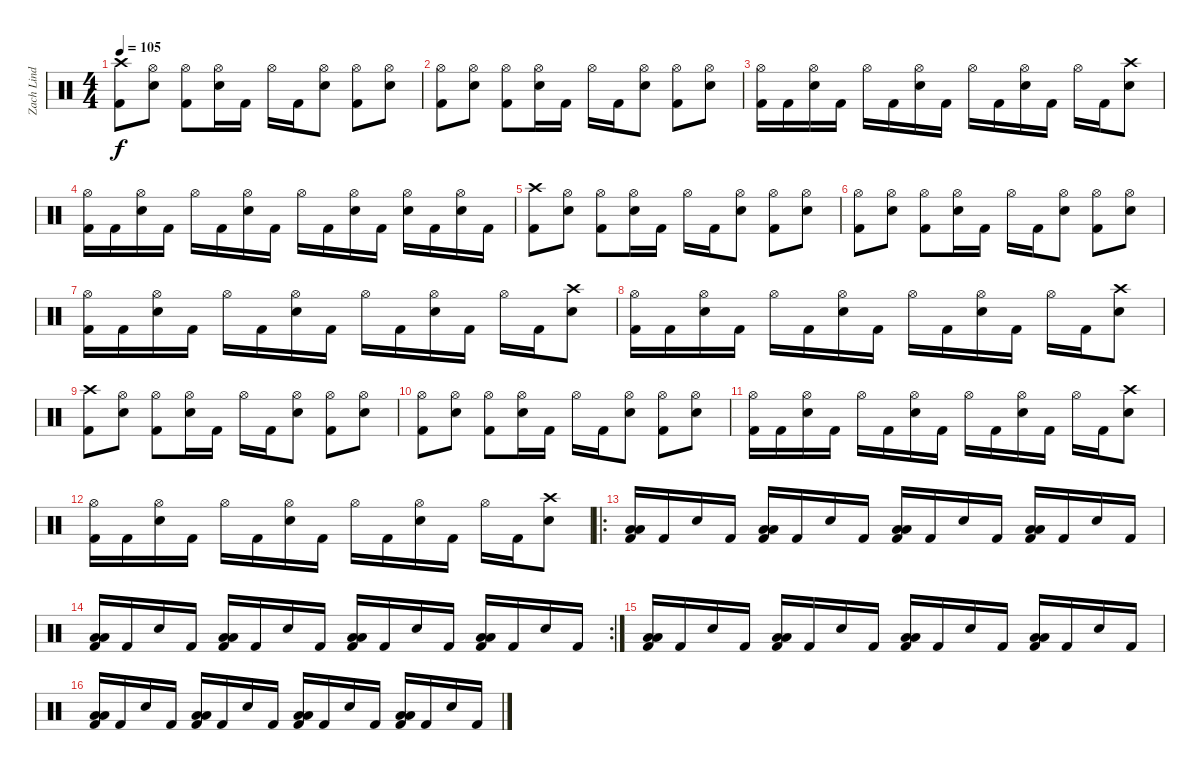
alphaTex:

\track ("Zach Lind" "Zach Lind") {instrument percussion}
\staff {score}
\articulation defaults
\ts (4 4)
\tempo 105
\clef neutral
\ks c
("Crash high (hit)" "Kick (hit) 2").8{dy f} ("Hi-Hat (open)" "Snare (hit) 2").8 ("Hi-Hat (open)" "Kick (hit) 2").8 ("Hi-Hat (open)" "Snare (hit) 2").16 "Kick (hit) 2".16 "Hi-Hat (open)".16 "Kick (hit) 2".16 ("Hi-Hat (open)" "Snare (hit) 2").8 ("Hi-Hat (open)" "Kick (hit) 2").8 ("Hi-Hat (open)" "Snare (hit) 2").8 |
("Hi-Hat (open)" "Kick (hit) 2").8 ("Hi-Hat (open)" "Snare (hit) 2").8 ("Hi-Hat (open)" "Kick (hit) 2").8 ("Hi-Hat (open)" "Snare (hit) 2").16 "Kick (hit) 2".16 "Hi-Hat (open)".16 "Kick (hit) 2".16 ("Hi-Hat (open)" "Snare (hit) 2").8 ("Hi-Hat (open)" "Kick (hit) 2").8 ("Hi-Hat (open)" "Snare (hit) 2").8 |
("Hi-Hat (open)" "Kick (hit) 2").16 "Kick (hit) 2".16 ("Hi-Hat (open)" "Snare (hit) 2").16 "Kick (hit) 2".16 "Hi-Hat (open)".16 "Kick (hit) 2".16 ("Hi-Hat (open)" "Snare (hit) 2").16 "Kick (hit) 2".16 "Hi-Hat (open)".16 "Kick (hit) 2".16 ("Hi-Hat (open)" "Snare (hit) 2").16 "Kick (hit) 2".16 "Hi-Hat (open)".16 "Kick (hit) 2".16 ("Crash high (hit)" "Snare (hit) 2").8 |
("Hi-Hat (open)" "Kick (hit) 2").16 "Kick (hit) 2".16 ("Hi-Hat (open)" "Snare (hit) 2").16 "Kick (hit) 2".16 "Hi-Hat (open)".16 "Kick (hit) 2".16 ("Hi-Hat (open)" "Snare (hit) 2").16 "Kick (hit) 2".16 "Hi-Hat (open)".16 "Kick (hit) 2".16 ("Hi-Hat (open)" "Snare (hit) 2").16 "Kick (hit) 2".16 ("Hi-Hat (open)" "Snare (hit) 2").16 "Kick (hit) 2".16 ("Hi-Hat (open)" "Snare (hit) 2").16 "Kick (hit) 2".16 |
("Crash high (hit)" "Kick (hit) 2").8 ("Hi-Hat (open)" "Snare (hit) 2").8 ("Hi-Hat (open)" "Kick (hit) 2").8 ("Hi-Hat (open)" "Snare (hit) 2").16 "Kick (hit) 2".16 "Hi-Hat (open)".16 "Kick (hit) 2".16 ("Hi-Hat (open)" "Snare (hit) 2").8 ("Hi-Hat (open)" "Kick (hit) 2").8 ("Hi-Hat (open)" "Snare (hit) 2").8 |
("Hi-Hat (open)" "Kick (hit) 2").8 ("Hi-Hat (open)" "Snare (hit) 2").8 ("Hi-Hat (open)" "Kick (hit) 2").8 ("Hi-Hat (open)" "Snare (hit) 2").16 "Kick (hit) 2".16 "Hi-Hat (open)".16 "Kick (hit) 2".16 ("Hi-Hat (open)" "Snare (hit) 2").8 ("Hi-Hat (open)" "Kick (hit) 2").8 ("Hi-Hat (open)" "Snare (hit) 2").8 |
("Hi-Hat (open)" "Kick (hit) 2").16 "Kick (hit) 2".16 ("Hi-Hat (open)" "Snare (hit) 2").16 "Kick (hit) 2".16 "Hi-Hat (open)".16 "Kick (hit) 2".16 ("Hi-Hat (open)" "Snare (hit) 2").16 "Kick (hit) 2".16 "Hi-Hat (open)".16 "Kick (hit) 2".16 ("Hi-Hat (open)" "Snare (hit) 2").16 "Kick (hit) 2".16 "Hi-Hat (open)".16 "Kick (hit) 2".16 ("Crash high (hit)" "Snare (hit) 2").8 |
("Hi-Hat (open)" "Kick (hit) 2").16 "Kick (hit) 2".16 ("Hi-Hat (open)" "Snare (hit) 2").16 "Kick (hit) 2".16 "Hi-Hat (open)".16 "Kick (hit) 2".16 ("Hi-Hat (open)" "Snare (hit) 2").16 "Kick (hit) 2".16 "Hi-Hat (open)".16 "Kick (hit) 2".16 ("Hi-Hat (open)" "Snare (hit) 2").16 "Kick (hit) 2".16 "Hi-Hat (open)".16 "Kick (hit) 2".16 ("Crash high (hit)" "Snare (hit) 2").8 |
("Crash high (hit)" "Kick (hit) 2").8 ("Hi-Hat (open)" "Snare (hit) 2").8 ("Hi-Hat (open)" "Kick (hit) 2").8 ("Hi-Hat (open)" "Snare (hit) 2").16 "Kick (hit) 2".16 "Hi-Hat (open)".16 "Kick (hit) 2".16 ("Hi-Hat (open)" "Snare (hit) 2").8 ("Hi-Hat (open)" "Kick (hit) 2").8 ("Hi-Hat (open)" "Snare (hit) 2").8 |
("Hi-Hat (open)" "Kick (hit) 2").8 ("Hi-Hat (open)" "Snare (hit) 2").8 ("Hi-Hat (open)" "Kick (hit) 2").8 ("Hi-Hat (open)" "Snare (hit) 2").16 "Kick (hit) 2".16 "Hi-Hat (open)".16 "Kick (hit) 2".16 ("Hi-Hat (open)" "Snare (hit) 2").8 ("Hi-Hat (open)" "Kick (hit) 2").8 ("Hi-Hat (open)" "Snare (hit) 2").8 |
("Hi-Hat (open)" "Kick (hit) 2").16 "Kick (hit) 2".16 ("Hi-Hat (open)" "Snare (hit) 2").16 "Kick (hit) 2".16 "Hi-Hat (open)".16 "Kick (hit) 2".16 ("Hi-Hat (open)" "Snare (hit) 2").16 "Kick (hit) 2".16 "Hi-Hat (open)".16 "Kick (hit) 2".16 ("Hi-Hat (open)" "Snare (hit) 2").16 "Kick (hit) 2".16 "Hi-Hat (open)".16 "Kick (hit) 2".16 ("Crash high (hit)" "Snare (hit) 2").8 |
("Hi-Hat (open)" "Kick (hit) 2").16 "Kick (hit) 2".16 ("Hi-Hat (open)" "Snare (hit) 2").16 "Kick (hit) 2".16 "Hi-Hat (open)".16 "Kick (hit) 2".16 ("Hi-Hat (open)" "Snare (hit) 2").16 "Kick (hit) 2".16 "Hi-Hat (open)".16 "Kick (hit) 2".16 ("Hi-Hat (open)" "Snare (hit) 2").16 "Kick (hit) 2".16 "Hi-Hat (open)".16 "Kick (hit) 2".16 ("Crash high (hit)" "Snare (hit) 2").8 |
\ro
("Low Tom (hit)" "Low Floor Tom (hit)" "Kick (hit) 2").16 "Kick (hit) 2".16 "Snare (hit) 2".16 "Kick (hit) 2".16 ("Low Tom (hit)" "Low Floor Tom (hit)" "Kick (hit) 2").16 "Kick (hit) 2".16 "Snare (hit) 2".16 "Kick (hit) 2".16 ("Low Tom (hit)" "Low Floor Tom (hit)" "Kick (hit) 2").16 "Kick (hit) 2".16 "Snare (hit) 2".16 "Kick (hit) 2".16 ("Low Tom (hit)" "Low Floor Tom (hit)" "Kick (hit) 2").16 "Kick (hit) 2".16 "Snare (hit) 2".16 "Kick (hit) 2".16 |
\rc 2
("Low Tom (hit)" "Low Floor Tom (hit)" "Kick (hit) 2").16 "Kick (hit) 2".16 "Snare (hit) 2".16 "Kick (hit) 2".16 ("Low Tom (hit)" "Low Floor Tom (hit)" "Kick (hit) 2").16 "Kick (hit) 2".16 "Snare (hit) 2".16 "Kick (hit) 2".16 ("Low Tom (hit)" "Low Floor Tom (hit)" "Kick (hit) 2").16 "Kick (hit) 2".16 "Snare (hit) 2".16 "Kick (hit) 2".16 ("Low Tom (hit)" "Low Floor Tom (hit)" "Kick (hit) 2").16 "Kick (hit) 2".16 "Snare (hit) 2".16 "Kick (hit) 2".16 |
("Low Tom (hit)" "Low Floor Tom (hit)" "Kick (hit) 2").16 "Kick (hit) 2".16 "Snare (hit) 2".16 "Kick (hit) 2".16 ("Low Tom (hit)" "Low Floor Tom (hit)" "Kick (hit) 2").16 "Kick (hit) 2".16 "Snare (hit) 2".16 "Kick (hit) 2".16 ("Low Tom (hit)" "Low Floor Tom (hit)" "Kick (hit) 2").16 "Kick (hit) 2".16 "Snare (hit) 2".16 "Kick (hit) 2".16 ("Low Tom (hit)" "Low Floor Tom (hit)" "Kick (hit) 2").16 "Kick (hit) 2".16 "Snare (hit) 2".16 "Kick (hit) 2".16 |
("Low Tom (hit)" "Low Floor Tom (hit)" "Kick (hit) 2").16 "Kick (hit) 2".16 "Snare (hit) 2".16 "Kick (hit) 2".16 ("Low Tom (hit)" "Low Floor Tom (hit)" "Kick (hit) 2").16 "Kick (hit) 2".16 "Snare (hit) 2".16 "Kick (hit) 2".16 ("Low Tom (hit)" "Low Floor Tom (hit)" "Kick (hit) 2").16 "Kick (hit) 2".16 "Snare (hit) 2".16 "Kick (hit) 2".16 ("Low Tom (hit)" "Low Floor Tom (hit)" "Kick (hit) 2").16 "Kick (hit) 2".16 "Snare (hit) 2".16 "Kick (hit) 2".16
